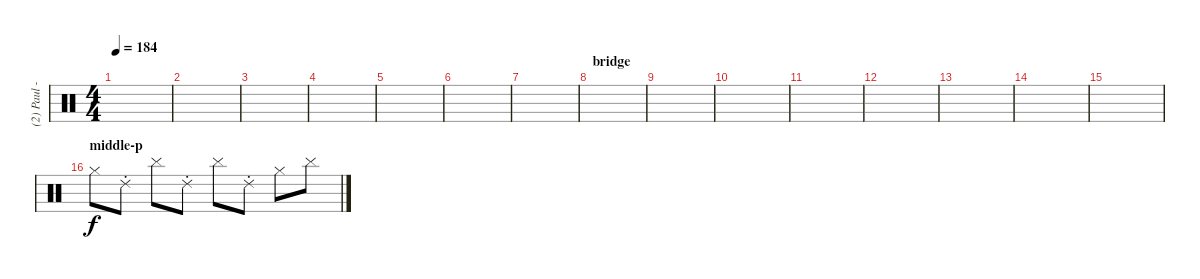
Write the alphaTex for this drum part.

\track ("(2) Paul - DJ" "(2) Paul -") {instrument percussion}
\staff {score}
\articulation defaults
\ts (4 4)
\tempo 184
\clef neutral
\ks c
|
|
|
|
|
|
|
\section ("" "bridge")
|
|
|
|
|
|
|
|
\section ("" "middle-p")
"Hi-Hat (closed)".8 "Ride (choke) 2".8 "Cymbal (hit)".8 "Ride (choke) 2".8 "Cymbal (hit)".8 "Ride (choke) 2".8 "Hi-Hat (closed)".8 "Cymbal (hit)".8
